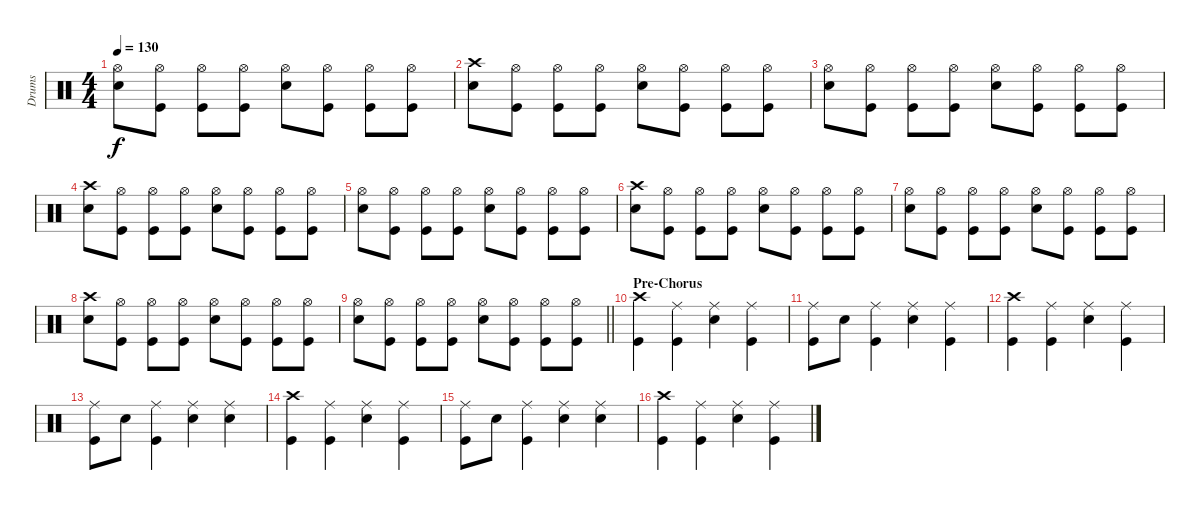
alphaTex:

\track ("Drums" "Drums") {instrument percussion}
\staff {score}
\articulation defaults
\ts (4 4)
\tempo 130
\clef neutral
\ks c
("Hi-Hat (open)" "Snare (hit) 2").8{dy f} ("Hi-Hat (open)" "Kick (hit)").8 ("Hi-Hat (open)" "Kick (hit)").8 ("Hi-Hat (open)" "Kick (hit)").8 ("Hi-Hat (open)" "Snare (hit) 2").8 ("Hi-Hat (open)" "Kick (hit)").8 ("Hi-Hat (open)" "Kick (hit)").8 ("Hi-Hat (open)" "Kick (hit)").8 |
("Crash high (hit)" "Snare (hit) 2").8 ("Hi-Hat (open)" "Kick (hit)").8 ("Hi-Hat (open)" "Kick (hit)").8 ("Hi-Hat (open)" "Kick (hit)").8 ("Hi-Hat (open)" "Snare (hit) 2").8 ("Hi-Hat (open)" "Kick (hit)").8 ("Hi-Hat (open)" "Kick (hit)").8 ("Hi-Hat (open)" "Kick (hit)").8 |
("Hi-Hat (open)" "Snare (hit) 2").8 ("Hi-Hat (open)" "Kick (hit)").8 ("Hi-Hat (open)" "Kick (hit)").8 ("Hi-Hat (open)" "Kick (hit)").8 ("Hi-Hat (open)" "Snare (hit) 2").8 ("Hi-Hat (open)" "Kick (hit)").8 ("Hi-Hat (open)" "Kick (hit)").8 ("Hi-Hat (open)" "Kick (hit)").8 |
("Crash high (hit)" "Snare (hit) 2").8 ("Hi-Hat (open)" "Kick (hit)").8 ("Hi-Hat (open)" "Kick (hit)").8 ("Hi-Hat (open)" "Kick (hit)").8 ("Hi-Hat (open)" "Snare (hit) 2").8 ("Hi-Hat (open)" "Kick (hit)").8 ("Hi-Hat (open)" "Kick (hit)").8 ("Hi-Hat (open)" "Kick (hit)").8 |
("Hi-Hat (open)" "Snare (hit) 2").8 ("Hi-Hat (open)" "Kick (hit)").8 ("Hi-Hat (open)" "Kick (hit)").8 ("Hi-Hat (open)" "Kick (hit)").8 ("Hi-Hat (open)" "Snare (hit) 2").8 ("Hi-Hat (open)" "Kick (hit)").8 ("Hi-Hat (open)" "Kick (hit)").8 ("Hi-Hat (open)" "Kick (hit)").8 |
("Crash high (hit)" "Snare (hit) 2").8 ("Hi-Hat (open)" "Kick (hit)").8 ("Hi-Hat (open)" "Kick (hit)").8 ("Hi-Hat (open)" "Kick (hit)").8 ("Hi-Hat (open)" "Snare (hit) 2").8 ("Hi-Hat (open)" "Kick (hit)").8 ("Hi-Hat (open)" "Kick (hit)").8 ("Hi-Hat (open)" "Kick (hit)").8 |
("Hi-Hat (open)" "Snare (hit) 2").8 ("Hi-Hat (open)" "Kick (hit)").8 ("Hi-Hat (open)" "Kick (hit)").8 ("Hi-Hat (open)" "Kick (hit)").8 ("Hi-Hat (open)" "Snare (hit) 2").8 ("Hi-Hat (open)" "Kick (hit)").8 ("Hi-Hat (open)" "Kick (hit)").8 ("Hi-Hat (open)" "Kick (hit)").8 |
("Crash high (hit)" "Snare (hit) 2").8 ("Hi-Hat (open)" "Kick (hit)").8 ("Hi-Hat (open)" "Kick (hit)").8 ("Hi-Hat (open)" "Kick (hit)").8 ("Hi-Hat (open)" "Snare (hit) 2").8 ("Hi-Hat (open)" "Kick (hit)").8 ("Hi-Hat (open)" "Kick (hit)").8 ("Hi-Hat (open)" "Kick (hit)").8 |
\barLineRight lightlight
("Hi-Hat (open)" "Snare (hit) 2").8 ("Hi-Hat (open)" "Kick (hit)").8 ("Hi-Hat (open)" "Kick (hit)").8 ("Hi-Hat (open)" "Kick (hit)").8 ("Hi-Hat (open)" "Snare (hit) 2").8 ("Hi-Hat (open)" "Kick (hit)").8 ("Hi-Hat (open)" "Kick (hit)").8 ("Hi-Hat (open)" "Kick (hit)").8 |
\section ("" "Pre-Chorus")
("Crash high (hit)" "Kick (hit)").4 ("Ride (middle)" "Kick (hit)").4 ("Ride (middle)" "Snare (hit) 2").4 ("Ride (middle)" "Kick (hit)").4 |
("Ride (middle)" "Kick (hit)").8 "Snare (hit) 2".8 ("Ride (middle)" "Kick (hit)").4 ("Ride (middle)" "Snare (hit) 2").4 ("Ride (middle)" "Kick (hit)").4 |
("Crash high (hit)" "Kick (hit)").4 ("Ride (middle)" "Kick (hit)").4 ("Ride (middle)" "Snare (hit) 2").4 ("Ride (middle)" "Kick (hit)").4 |
("Ride (middle)" "Kick (hit)").8 "Snare (hit) 2".8 ("Ride (middle)" "Kick (hit)").4 ("Ride (middle)" "Snare (hit) 2").4 ("Ride (middle)" "Snare (hit) 2").4 |
("Crash high (hit)" "Kick (hit)").4 ("Ride (middle)" "Kick (hit)").4 ("Ride (middle)" "Snare (hit) 2").4 ("Ride (middle)" "Kick (hit)").4 |
("Ride (middle)" "Kick (hit)").8 "Snare (hit) 2".8 ("Ride (middle)" "Kick (hit)").4 ("Ride (middle)" "Snare (hit) 2").4 ("Ride (middle)" "Snare (hit) 2").4 |
("Crash high (hit)" "Kick (hit)").4 ("Ride (middle)" "Kick (hit)").4 ("Ride (middle)" "Snare (hit) 2").4 ("Ride (middle)" "Kick (hit)").4
